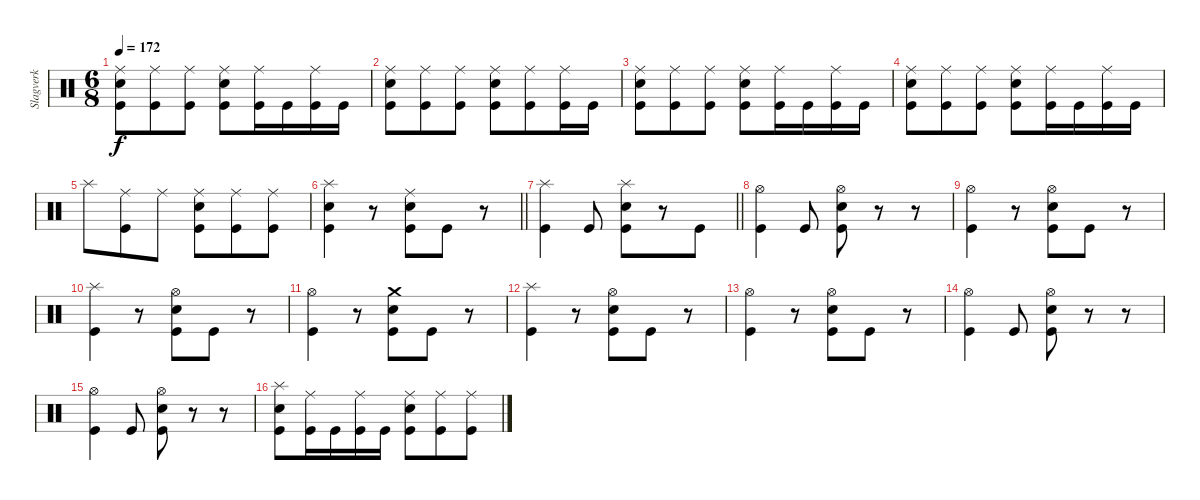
\track ("Slagverk" "Slagverk") {instrument percussion}
\staff {score}
\articulation defaults
\ts (6 8)
\tempo 172
\clef neutral
\ks c
("Ride (middle)" "Snare (hit) 2" "Kick (hit)").8{dy f} ("Ride (middle)" "Kick (hit)").8 ("Ride (middle)" "Kick (hit)").8 ("Ride (middle)" "Snare (hit) 2" "Kick (hit)").8 ("Ride (middle)" "Kick (hit)").16 "Kick (hit)".16 ("Ride (middle)" "Kick (hit)").16 "Kick (hit)".16 |
("Ride (middle)" "Snare (hit) 2" "Kick (hit)").8 ("Ride (middle)" "Kick (hit)").8 ("Ride (middle)" "Kick (hit)").8 ("Ride (middle)" "Snare (hit) 2" "Kick (hit)").8 ("Ride (middle)" "Kick (hit)").8 ("Ride (middle)" "Kick (hit)").16 "Kick (hit)".16 |
("Ride (middle)" "Snare (hit) 2" "Kick (hit)").8 ("Ride (middle)" "Kick (hit)").8 ("Ride (middle)" "Kick (hit)").8 ("Ride (middle)" "Snare (hit) 2" "Kick (hit)").8 ("Ride (middle)" "Kick (hit)").16 "Kick (hit)".16 ("Ride (middle)" "Kick (hit)").16 "Kick (hit)".16 |
("Ride (middle)" "Snare (hit) 2" "Kick (hit)").8 ("Ride (middle)" "Kick (hit)").8 ("Ride (middle)" "Kick (hit)").8 ("Ride (middle)" "Snare (hit) 2" "Kick (hit)").8 ("Ride (middle)" "Kick (hit)").16 "Kick (hit)".16 ("Ride (middle)" "Kick (hit)").16 "Kick (hit)".16 |
"Splash (hit)".8 ("Ride (middle)" "Kick (hit)").8 "Ride (middle)".8 ("Ride (middle)" "Snare (hit) 2" "Kick (hit)").8 ("Ride (middle)" "Kick (hit)").8 ("Ride (middle)" "Kick (hit)").8 |
\barLineRight lightlight
("Splash (hit)" "Snare (hit) 2" "Kick (hit)").4 r.8 ("Ride (middle)" "Snare (hit) 2" "Kick (hit)").8 "Kick (hit)".8 r.8 |
\barLineRight lightlight
("Splash (hit)" "Kick (hit)").4 "Kick (hit)".8 ("Splash (hit)" "Snare (hit) 2" "Kick (hit)").8 r.8 "Kick (hit)".8 |
("Hi-Hat (open)" "Kick (hit)").4 "Kick (hit)".8 ("Hi-Hat (open)" "Snare (hit) 2" "Kick (hit)").8 r.8 r.8 |
("Hi-Hat (open)" "Kick (hit)").4 r.8 ("Hi-Hat (open)" "Snare (hit) 2" "Kick (hit)").8 "Kick (hit)".8 r.8 |
("Splash (hit)" "Kick (hit)").4 r.8 ("Hi-Hat (open)" "Snare (hit) 2" "Kick (hit)").8 "Kick (hit)".8 r.8 |
("Hi-Hat (open)" "Kick (hit)").4 r.8 ("Crash medium (hit)" "Snare (hit) 2" "Kick (hit)").8 "Kick (hit)".8 r.8 |
("Splash (hit)" "Kick (hit)").4 r.8 ("Hi-Hat (open)" "Snare (hit) 2" "Kick (hit)").8 "Kick (hit)".8 r.8 |
("Hi-Hat (open)" "Kick (hit)").4 r.8 ("Hi-Hat (open)" "Snare (hit) 2" "Kick (hit)").8 "Kick (hit)".8 r.8 |
("Hi-Hat (open)" "Kick (hit)").4 "Kick (hit)".8 ("Hi-Hat (open)" "Snare (hit) 2" "Kick (hit)").8 r.8 r.8 |
("Hi-Hat (open)" "Kick (hit)").4 "Kick (hit)".8 ("Hi-Hat (open)" "Snare (hit) 2" "Kick (hit)").8 r.8 r.8 |
("Splash (hit)" "Snare (hit) 2" "Kick (hit)").8 ("Ride (middle)" "Kick (hit)").16 "Kick (hit)".16 ("Ride (middle)" "Kick (hit)").16 "Kick (hit)".16 ("Ride (middle)" "Snare (hit) 2" "Kick (hit)").8 ("Ride (middle)" "Kick (hit)").8 ("Ride (middle)" "Kick (hit)").8
